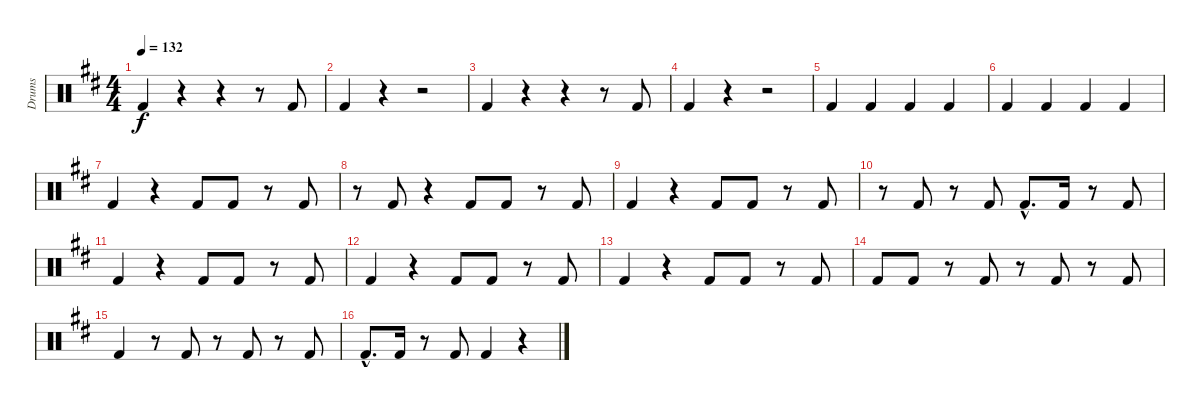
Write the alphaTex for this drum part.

\track ("Drums" "Drums") {instrument percussion}
\staff {score}
\articulation defaults
\ts (4 4)
\tempo 132
\clef neutral
\ks d "Kick (hit) 2".4{dy f}
r.4 r.4 r.8 "Kick (hit) 2".8 |
"Kick (hit) 2".4 r.4 r.2 |
"Kick (hit) 2".4 r.4 r.4 r.8 "Kick (hit) 2".8 |
"Kick (hit) 2".4 r.4 r.2 |
"Kick (hit) 2".4 "Kick (hit) 2".4 "Kick (hit) 2".4 "Kick (hit) 2".4 |
"Kick (hit) 2".4 "Kick (hit) 2".4 "Kick (hit) 2".4 "Kick (hit) 2".4 |
"Kick (hit) 2".4 r.4 "Kick (hit) 2".8 "Kick (hit) 2".8 r.8 "Kick (hit) 2".8 |
r.8 "Kick (hit) 2".8 r.4 "Kick (hit) 2".8 "Kick (hit) 2".8 r.8 "Kick (hit) 2".8 |
"Kick (hit) 2".4 r.4 "Kick (hit) 2".8 "Kick (hit) 2".8 r.8 "Kick (hit) 2".8 |
r.8 "Kick (hit) 2".8 r.8 "Kick (hit) 2".8 "Kick (hit) 2"{hac}.8{d} "Kick (hit) 2".16 r.8 "Kick (hit) 2".8 |
"Kick (hit) 2".4 r.4 "Kick (hit) 2".8 "Kick (hit) 2".8 r.8 "Kick (hit) 2".8 |
"Kick (hit) 2".4 r.4 "Kick (hit) 2".8 "Kick (hit) 2".8 r.8 "Kick (hit) 2".8 |
"Kick (hit) 2".4 r.4 "Kick (hit) 2".8 "Kick (hit) 2".8 r.8 "Kick (hit) 2".8 |
"Kick (hit) 2".8 "Kick (hit) 2".8 r.8 "Kick (hit) 2".8 r.8 "Kick (hit) 2".8 r.8 "Kick (hit) 2".8 |
"Kick (hit) 2".4 r.8 "Kick (hit) 2".8 r.8 "Kick (hit) 2".8 r.8 "Kick (hit) 2".8 |
"Kick (hit) 2"{hac}.8{d} "Kick (hit) 2".16 r.8 "Kick (hit) 2".8 "Kick (hit) 2".4 r.4
